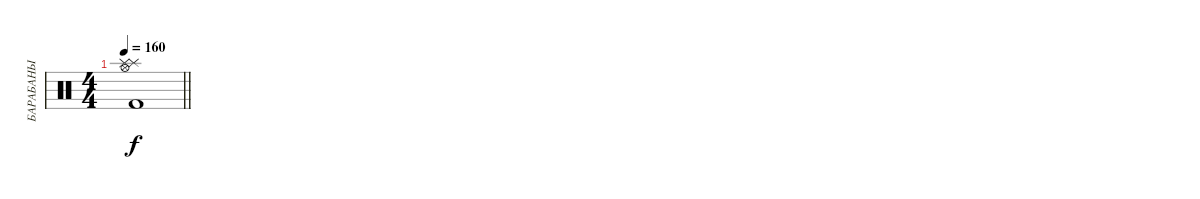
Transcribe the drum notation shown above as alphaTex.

\track ("БАРАБАНЫ" "БАРАБАНЫ") {instrument percussion}
\staff {score}
\articulation defaults
\ts (4 4)
\tempo 160
\clef neutral
\barLineRight lightlight
\ks c
("Hi-Hat (open)" "Kick (hit) 2" "Splash (hit)" "Splash (hit)").1{dy f}
